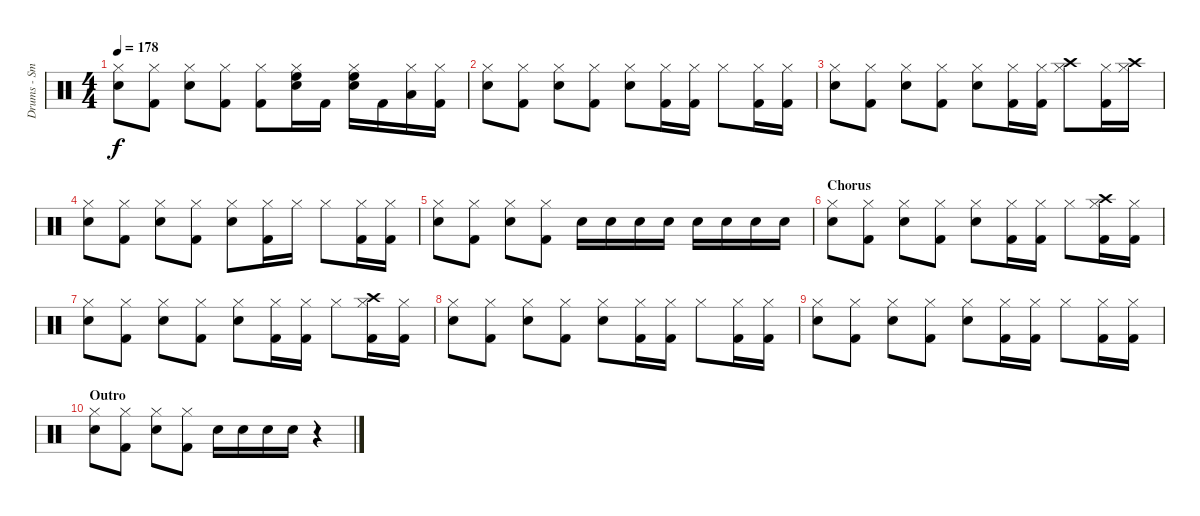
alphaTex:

\track ("Drums - Smelly" "Drums - Sm") {instrument percussion}
\staff {score}
\articulation defaults
\ts (4 4)
\tempo 178
\clef neutral
\ks c
("Hi-Hat (closed)" "Electric Snare (hit)").8{dy f} ("Hi-Hat (closed)" "Kick (hit) 2").8 ("Hi-Hat (closed)" "Electric Snare (hit)").8 ("Hi-Hat (closed)" "Kick (hit) 2").8 ("Hi-Hat (closed)" "Kick (hit) 2").8 ("Hi-Hat (closed)" "Electric Snare (hit)" "High Floor Tom (hit)").16 "Kick (hit) 2".16 ("Hi-Hat (closed)" "Electric Snare (hit)" "High Floor Tom (hit)").16 "Kick (hit) 2".16 ("Hi-Hat (closed)" "Low Floor Tom (hit)").16 ("Hi-Hat (closed)" "Kick (hit) 2").16 |
("Hi-Hat (closed)" "Electric Snare (hit)").8 ("Hi-Hat (closed)" "Kick (hit) 2").8 ("Hi-Hat (closed)" "Electric Snare (hit)").8 ("Hi-Hat (closed)" "Kick (hit) 2").8 ("Hi-Hat (closed)" "Electric Snare (hit)").8 ("Hi-Hat (closed)" "Kick (hit) 2").16 ("Hi-Hat (closed)" "Kick (hit) 2").16 "Hi-Hat (closed)".8 ("Hi-Hat (closed)" "Kick (hit) 2").16 ("Hi-Hat (closed)" "Kick (hit) 2").16 |
("Hi-Hat (closed)" "Electric Snare (hit)").8 ("Hi-Hat (closed)" "Kick (hit) 2").8 ("Hi-Hat (closed)" "Electric Snare (hit)").8 ("Hi-Hat (closed)" "Kick (hit) 2").8 ("Hi-Hat (closed)" "Electric Snare (hit)").8 ("Hi-Hat (closed)" "Kick (hit) 2").16 ("Hi-Hat (closed)" "Kick (hit) 2").16 ("Hi-Hat (closed)" "Crash high (hit)").8 ("Hi-Hat (closed)" "Kick (hit) 2").16 ("Hi-Hat (closed)" "Crash high (hit)").16 |
("Hi-Hat (closed)" "Electric Snare (hit)").8 ("Hi-Hat (closed)" "Kick (hit) 2").8 ("Hi-Hat (closed)" "Electric Snare (hit)").8 ("Hi-Hat (closed)" "Kick (hit) 2").8 ("Hi-Hat (closed)" "Electric Snare (hit)").8 ("Hi-Hat (closed)" "Kick (hit) 2").16 "Hi-Hat (closed)".16 "Hi-Hat (closed)".8 ("Hi-Hat (closed)" "Kick (hit) 2").16 ("Hi-Hat (closed)" "Kick (hit) 2").16 |
("Hi-Hat (closed)" "Electric Snare (hit)").8 ("Hi-Hat (closed)" "Kick (hit) 2").8 ("Hi-Hat (closed)" "Electric Snare (hit)").8 ("Hi-Hat (closed)" "Kick (hit) 2").8 "Electric Snare (hit)".16 "Electric Snare (hit)".16 "Electric Snare (hit)".16 "Electric Snare (hit)".16 "Electric Snare (hit)".16 "Electric Snare (hit)".16 "Electric Snare (hit)".16 "Electric Snare (hit)".16 |
\section ("" "Chorus")
("Hi-Hat (closed)" "Electric Snare (hit)").8 ("Hi-Hat (closed)" "Kick (hit) 2").8 ("Hi-Hat (closed)" "Electric Snare (hit)").8 ("Hi-Hat (closed)" "Kick (hit) 2").8 ("Hi-Hat (closed)" "Electric Snare (hit)").8 ("Hi-Hat (closed)" "Kick (hit) 2").16 ("Hi-Hat (closed)" "Kick (hit) 2").16 "Hi-Hat (closed)".8 ("Hi-Hat (closed)" "Crash high (hit)" "Kick (hit) 2").16 ("Hi-Hat (closed)" "Kick (hit) 2").16 |
("Hi-Hat (closed)" "Electric Snare (hit)").8 ("Hi-Hat (closed)" "Kick (hit) 2").8 ("Hi-Hat (closed)" "Electric Snare (hit)").8 ("Hi-Hat (closed)" "Kick (hit) 2").8 ("Hi-Hat (closed)" "Electric Snare (hit)").8 ("Hi-Hat (closed)" "Kick (hit) 2").16 ("Hi-Hat (closed)" "Kick (hit) 2").16 "Hi-Hat (closed)".8 ("Hi-Hat (closed)" "Crash high (hit)" "Kick (hit) 2").16 ("Hi-Hat (closed)" "Kick (hit) 2").16 |
("Hi-Hat (closed)" "Electric Snare (hit)").8 ("Hi-Hat (closed)" "Kick (hit) 2").8 ("Hi-Hat (closed)" "Electric Snare (hit)").8 ("Hi-Hat (closed)" "Kick (hit) 2").8 ("Hi-Hat (closed)" "Electric Snare (hit)").8 ("Hi-Hat (closed)" "Kick (hit) 2").16 ("Hi-Hat (closed)" "Kick (hit) 2").16 "Hi-Hat (closed)".8 ("Hi-Hat (closed)" "Kick (hit) 2").16 ("Hi-Hat (closed)" "Kick (hit) 2").16 |
("Hi-Hat (closed)" "Electric Snare (hit)").8 ("Hi-Hat (closed)" "Kick (hit) 2").8 ("Hi-Hat (closed)" "Electric Snare (hit)").8 ("Hi-Hat (closed)" "Kick (hit) 2").8 ("Hi-Hat (closed)" "Electric Snare (hit)").8 ("Hi-Hat (closed)" "Kick (hit) 2").16 ("Hi-Hat (closed)" "Kick (hit) 2").16 "Hi-Hat (closed)".8 ("Hi-Hat (closed)" "Kick (hit) 2").16 ("Hi-Hat (closed)" "Kick (hit) 2").16 |
\section ("" "Outro")
("Hi-Hat (closed)" "Electric Snare (hit)").8 ("Hi-Hat (closed)" "Kick (hit) 2").8 ("Hi-Hat (closed)" "Electric Snare (hit)").8 ("Hi-Hat (closed)" "Kick (hit) 2").8 "Electric Snare (hit)".16 "Electric Snare (hit)".16 "Electric Snare (hit)".16 "Electric Snare (hit)".16 r.4
